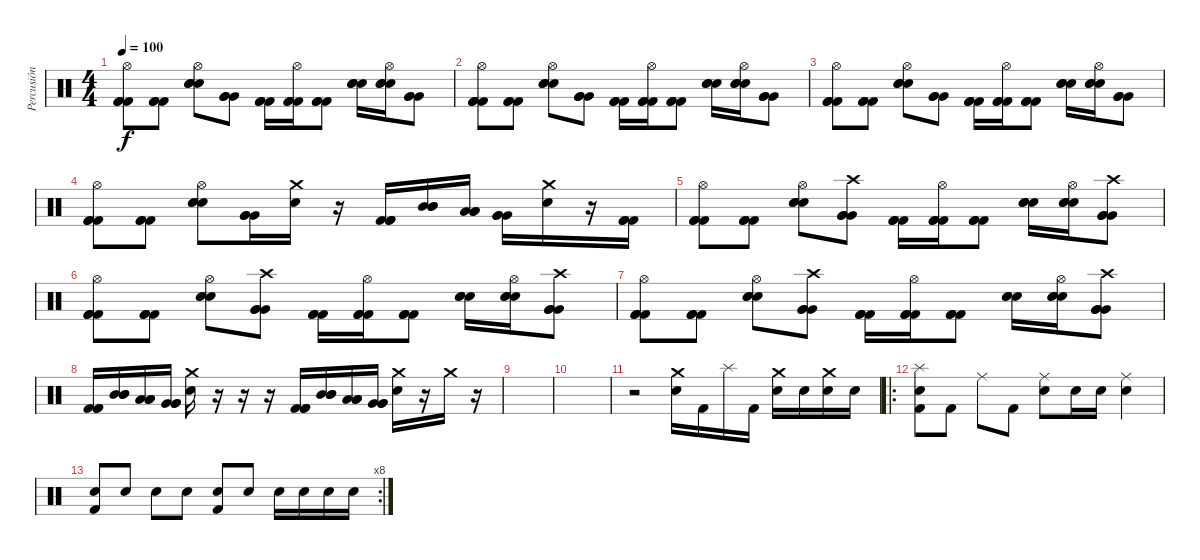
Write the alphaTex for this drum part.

\track ("Percusión" "Percusión") {instrument percussion}
\staff {score}
\articulation defaults
\ts (4 4)
\tempo 100
\clef neutral
\ks c
("Hi-Hat (open)" "Kick (hit) 2" "Kick (hit) 2" "Kick (hit) 2").8{dy f} ("Kick (hit) 2" "Kick (hit) 2" "Kick (hit) 2").8 ("Hi-Hat (open)" "Snare (hit) 2" "Snare (hit) 2" "Snare (hit) 2").8 ("Very Low Tom (hit)" "Very Low Tom (hit)" "Very Low Tom (hit)").8 ("Kick (hit) 2" "Kick (hit) 2" "Kick (hit) 2").16 ("Hi-Hat (open)" "Kick (hit) 2" "Kick (hit) 2" "Kick (hit) 2").16 ("Kick (hit) 2" "Kick (hit) 2" "Kick (hit) 2").8 ("Snare (hit) 2" "Snare (hit) 2" "Snare (hit) 2").16 ("Hi-Hat (open)" "Snare (hit) 2" "Snare (hit) 2" "Snare (hit) 2").16 ("Very Low Tom (hit)" "Very Low Tom (hit)" "Very Low Tom (hit)").8 |
("Hi-Hat (open)" "Kick (hit) 2" "Kick (hit) 2" "Kick (hit) 2").8 ("Kick (hit) 2" "Kick (hit) 2" "Kick (hit) 2").8 ("Hi-Hat (open)" "Snare (hit) 2" "Snare (hit) 2" "Snare (hit) 2").8 ("Very Low Tom (hit)" "Very Low Tom (hit)" "Very Low Tom (hit)").8 ("Kick (hit) 2" "Kick (hit) 2" "Kick (hit) 2").16 ("Hi-Hat (open)" "Kick (hit) 2" "Kick (hit) 2" "Kick (hit) 2").16 ("Kick (hit) 2" "Kick (hit) 2" "Kick (hit) 2").8 ("Snare (hit) 2" "Snare (hit) 2" "Snare (hit) 2").16 ("Hi-Hat (open)" "Snare (hit) 2" "Snare (hit) 2" "Snare (hit) 2").16 ("Very Low Tom (hit)" "Very Low Tom (hit)" "Very Low Tom (hit)").8 |
("Hi-Hat (open)" "Kick (hit) 2" "Kick (hit) 2" "Kick (hit) 2").8 ("Kick (hit) 2" "Kick (hit) 2" "Kick (hit) 2").8 ("Hi-Hat (open)" "Snare (hit) 2" "Snare (hit) 2" "Snare (hit) 2").8 ("Very Low Tom (hit)" "Very Low Tom (hit)" "Very Low Tom (hit)").8 ("Kick (hit) 2" "Kick (hit) 2" "Kick (hit) 2").16 ("Hi-Hat (open)" "Kick (hit) 2" "Kick (hit) 2" "Kick (hit) 2").16 ("Kick (hit) 2" "Kick (hit) 2" "Kick (hit) 2").8 ("Snare (hit) 2" "Snare (hit) 2" "Snare (hit) 2").16 ("Hi-Hat (open)" "Snare (hit) 2" "Snare (hit) 2" "Snare (hit) 2").16 ("Very Low Tom (hit)" "Very Low Tom (hit)" "Very Low Tom (hit)").8 |
("Hi-Hat (open)" "Kick (hit) 2" "Kick (hit) 2" "Kick (hit) 2").8 ("Kick (hit) 2" "Kick (hit) 2" "Kick (hit) 2").8 ("Hi-Hat (open)" "Snare (hit) 2" "Snare (hit) 2" "Snare (hit) 2").8 ("Very Low Tom (hit)" "Very Low Tom (hit)" "Very Low Tom (hit)").16 ("Electric Snare (hit)" "Crash medium (hit)").16 r.16 ("Kick (hit) 2" "Kick (hit) 2" "Kick (hit) 2").16 ("Mid Tom (hit)" "Mid Tom (hit)" "Mid Tom (hit)").16 ("Low Tom (hit)" "Low Tom (hit)" "Low Tom (hit)").16 ("Very Low Tom (hit)" "Very Low Tom (hit)" "Very Low Tom (hit)").16 ("Electric Snare (hit)" "Crash medium (hit)").16 r.16 ("Kick (hit) 2" "Kick (hit) 2" "Kick (hit) 2").16 |
("Hi-Hat (open)" "Kick (hit) 2" "Kick (hit) 2" "Kick (hit) 2").8 ("Kick (hit) 2" "Kick (hit) 2" "Kick (hit) 2").8 ("Hi-Hat (open)" "Snare (hit) 2" "Snare (hit) 2" "Snare (hit) 2").8 ("Crash high (hit)" "Very Low Tom (hit)" "Very Low Tom (hit)" "Very Low Tom (hit)").8 ("Kick (hit) 2" "Kick (hit) 2" "Kick (hit) 2").16 ("Hi-Hat (open)" "Kick (hit) 2" "Kick (hit) 2" "Kick (hit) 2").16 ("Kick (hit) 2" "Kick (hit) 2" "Kick (hit) 2").8 ("Snare (hit) 2" "Snare (hit) 2" "Snare (hit) 2").16 ("Hi-Hat (open)" "Snare (hit) 2" "Snare (hit) 2" "Snare (hit) 2").16 ("Crash high (hit)" "Very Low Tom (hit)" "Very Low Tom (hit)" "Very Low Tom (hit)").8 |
("Hi-Hat (open)" "Kick (hit) 2" "Kick (hit) 2" "Kick (hit) 2").8 ("Kick (hit) 2" "Kick (hit) 2" "Kick (hit) 2").8 ("Hi-Hat (open)" "Snare (hit) 2" "Snare (hit) 2" "Snare (hit) 2").8 ("Crash high (hit)" "Very Low Tom (hit)" "Very Low Tom (hit)" "Very Low Tom (hit)").8 ("Kick (hit) 2" "Kick (hit) 2" "Kick (hit) 2").16 ("Hi-Hat (open)" "Kick (hit) 2" "Kick (hit) 2" "Kick (hit) 2").16 ("Kick (hit) 2" "Kick (hit) 2" "Kick (hit) 2").8 ("Snare (hit) 2" "Snare (hit) 2" "Snare (hit) 2").16 ("Hi-Hat (open)" "Snare (hit) 2" "Snare (hit) 2" "Snare (hit) 2").16 ("Crash high (hit)" "Very Low Tom (hit)" "Very Low Tom (hit)" "Very Low Tom (hit)").8 |
("Hi-Hat (open)" "Kick (hit) 2" "Kick (hit) 2" "Kick (hit) 2").8 ("Kick (hit) 2" "Kick (hit) 2" "Kick (hit) 2").8 ("Hi-Hat (open)" "Snare (hit) 2" "Snare (hit) 2" "Snare (hit) 2").8 ("Crash high (hit)" "Very Low Tom (hit)" "Very Low Tom (hit)" "Very Low Tom (hit)").8 ("Kick (hit) 2" "Kick (hit) 2" "Kick (hit) 2").16 ("Hi-Hat (open)" "Kick (hit) 2" "Kick (hit) 2" "Kick (hit) 2").16 ("Kick (hit) 2" "Kick (hit) 2" "Kick (hit) 2").8 ("Snare (hit) 2" "Snare (hit) 2" "Snare (hit) 2").16 ("Hi-Hat (open)" "Snare (hit) 2" "Snare (hit) 2" "Snare (hit) 2").16 ("Crash high (hit)" "Very Low Tom (hit)" "Very Low Tom (hit)" "Very Low Tom (hit)").8 |
("Kick (hit) 2" "Kick (hit) 2" "Kick (hit) 2").16 ("Mid Tom (hit)" "Mid Tom (hit)" "Mid Tom (hit)").16 ("Low Tom (hit)" "Low Tom (hit)" "Low Tom (hit)").16 ("Very Low Tom (hit)" "Very Low Tom (hit)" "Very Low Tom (hit)").16 ("Electric Snare (hit)" "Crash medium (hit)").16 r.16 r.16 r.16 ("Kick (hit) 2" "Kick (hit) 2" "Kick (hit) 2").16 ("Mid Tom (hit)" "Mid Tom (hit)" "Mid Tom (hit)").16 ("Low Tom (hit)" "Low Tom (hit)" "Low Tom (hit)").16 ("Very Low Tom (hit)" "Very Low Tom (hit)" "Very Low Tom (hit)").16 ("Electric Snare (hit)" "Crash medium (hit)").16 r.16 "Crash medium (hit)".16 r.16 |
|
|
r.2 ("Crash medium (hit)" "Electric Snare (hit)").16 "Kick (hit) 2".16 "Splash (hit)".16 "Kick (hit) 2".16 ("Crash medium (hit)" "Electric Snare (hit)").16 "Electric Snare (hit)".16 ("Crash medium (hit)" "Electric Snare (hit)").16 "Electric Snare (hit)".16 |
\ro
("Splash (hit)" "Electric Snare (hit)" "Kick (hit) 2").8 "Kick (hit) 2".8 "Ride (middle)".8 "Kick (hit) 2".8 ("Electric Snare (hit)" "Ride (middle)").8 "Electric Snare (hit)".16 "Electric Snare (hit)".16 ("Ride (middle)" "Electric Snare (hit)").4 |
\rc 8
("Electric Snare (hit)" "Kick (hit) 2").8 "Electric Snare (hit)".8 "Electric Snare (hit)".8 "Electric Snare (hit)".8 ("Electric Snare (hit)" "Kick (hit) 2").8 "Electric Snare (hit)".8 "Electric Snare (hit)".16 "Electric Snare (hit)".16 "Electric Snare (hit)".16 "Electric Snare (hit)".16
